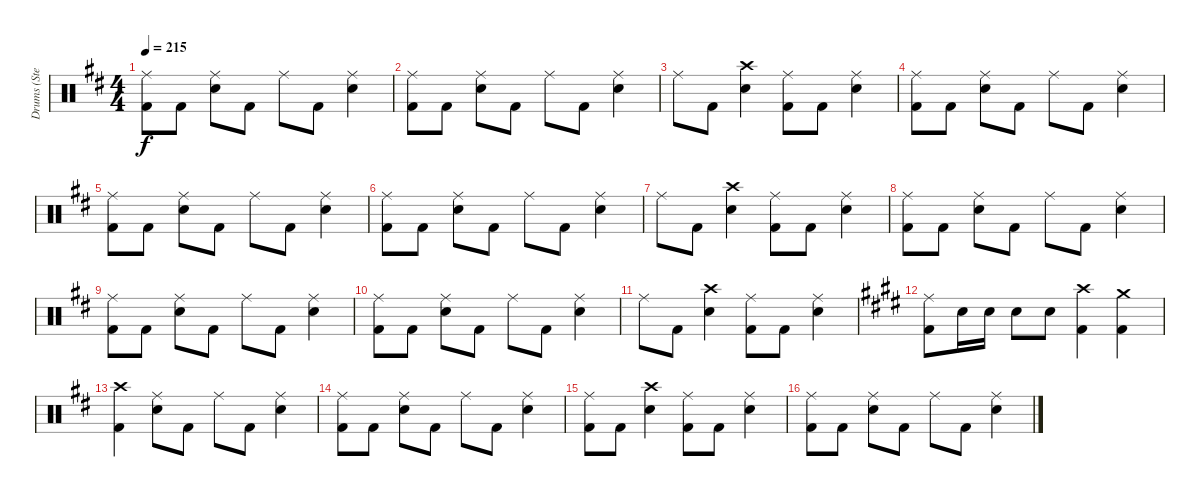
\track ("Drums (Steven)" "Drums (Ste") {instrument percussion}
\staff {score}
\articulation defaults
\ts (4 4)
\tempo 215
\clef neutral
\ks d
("Ride (middle)" "Kick (hit) 2").8{dy f} "Kick (hit) 2".8 ("Ride (middle)" "Snare (hit) 2").8 "Kick (hit) 2".8 "Ride (middle)".8 "Kick (hit) 2".8 ("Ride (middle)" "Snare (hit) 2").4 |
("Ride (middle)" "Kick (hit) 2").8 "Kick (hit) 2".8 ("Ride (middle)" "Snare (hit) 2").8 "Kick (hit) 2".8 "Ride (middle)".8 "Kick (hit) 2".8 ("Ride (middle)" "Snare (hit) 2").4 |
"Ride (middle)".8 "Kick (hit) 2".8 ("Crash high (hit)" "Snare (hit) 2").4 ("Ride (middle)" "Kick (hit) 2").8 "Kick (hit) 2".8 ("Ride (middle)" "Snare (hit) 2").4 |
("Ride (middle)" "Kick (hit) 2").8 "Kick (hit) 2".8 ("Ride (middle)" "Snare (hit) 2").8 "Kick (hit) 2".8 "Ride (middle)".8 "Kick (hit) 2".8 ("Ride (middle)" "Snare (hit) 2").4 |
("Ride (middle)" "Kick (hit) 2").8 "Kick (hit) 2".8 ("Ride (middle)" "Snare (hit) 2").8 "Kick (hit) 2".8 "Ride (middle)".8 "Kick (hit) 2".8 ("Ride (middle)" "Snare (hit) 2").4 |
("Ride (middle)" "Kick (hit) 2").8 "Kick (hit) 2".8 ("Ride (middle)" "Snare (hit) 2").8 "Kick (hit) 2".8 "Ride (middle)".8 "Kick (hit) 2".8 ("Ride (middle)" "Snare (hit) 2").4 |
"Ride (middle)".8 "Kick (hit) 2".8 ("Crash high (hit)" "Snare (hit) 2").4 ("Ride (middle)" "Kick (hit) 2").8 "Kick (hit) 2".8 ("Ride (middle)" "Snare (hit) 2").4 |
("Ride (middle)" "Kick (hit) 2").8 "Kick (hit) 2".8 ("Ride (middle)" "Snare (hit) 2").8 "Kick (hit) 2".8 "Ride (middle)".8 "Kick (hit) 2".8 ("Ride (middle)" "Snare (hit) 2").4 |
("Ride (middle)" "Kick (hit) 2").8 "Kick (hit) 2".8 ("Ride (middle)" "Snare (hit) 2").8 "Kick (hit) 2".8 "Ride (middle)".8 "Kick (hit) 2".8 ("Ride (middle)" "Snare (hit) 2").4 |
("Ride (middle)" "Kick (hit) 2").8 "Kick (hit) 2".8 ("Ride (middle)" "Snare (hit) 2").8 "Kick (hit) 2".8 "Ride (middle)".8 "Kick (hit) 2".8 ("Ride (middle)" "Snare (hit) 2").4 |
"Ride (middle)".8 "Kick (hit) 2".8 ("Crash high (hit)" "Snare (hit) 2").4 ("Ride (middle)" "Kick (hit) 2").8 "Kick (hit) 2".8 ("Ride (middle)" "Snare (hit) 2").4 |
\ks e
("Ride (middle)" "Kick (hit) 2").8 "Snare (hit) 2".16 "Snare (hit) 2".16 "Snare (hit) 2".8 "Snare (hit) 2".8 ("Crash high (hit)" "Kick (hit) 2").4 ("Crash medium (hit)" "Kick (hit) 2").4 |
\ks d
("Crash high (hit)" "Kick (hit) 2").4 ("Ride (middle)" "Snare (hit) 2").8 "Kick (hit) 2".8 "Ride (middle)".8 "Kick (hit) 2".8 ("Ride (middle)" "Snare (hit) 2").4 |
("Ride (middle)" "Kick (hit) 2").8 "Kick (hit) 2".8 ("Ride (middle)" "Snare (hit) 2").8 "Kick (hit) 2".8 "Ride (middle)".8 "Kick (hit) 2".8 ("Ride (middle)" "Snare (hit) 2").4 |
("Ride (middle)" "Kick (hit) 2").8 "Kick (hit) 2".8 ("Crash high (hit)" "Snare (hit) 2").4 ("Ride (middle)" "Kick (hit) 2").8 "Kick (hit) 2".8 ("Ride (middle)" "Snare (hit) 2").4 |
("Ride (middle)" "Kick (hit) 2").8 "Kick (hit) 2".8 ("Ride (middle)" "Snare (hit) 2").8 "Kick (hit) 2".8 "Ride (middle)".8 "Kick (hit) 2".8 ("Ride (middle)" "Snare (hit) 2").4
